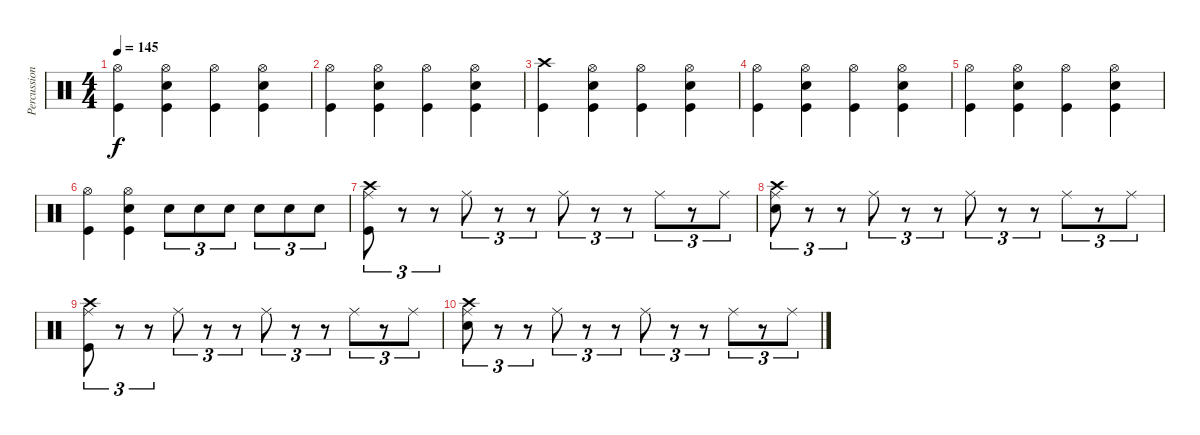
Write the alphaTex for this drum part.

\track ("Percussion" "Percussion") {instrument percussion}
\staff {score}
\articulation defaults
\ts (4 4)
\tempo 145
\clef neutral
\ks c
("Hi-Hat (open)" "Kick (hit)").4{dy f} ("Hi-Hat (open)" "Snare (hit) 2" "Kick (hit)").4 ("Hi-Hat (open)" "Kick (hit)").4 ("Hi-Hat (open)" "Snare (hit) 2" "Kick (hit)").4 |
("Hi-Hat (open)" "Kick (hit)").4 ("Hi-Hat (open)" "Snare (hit) 2" "Kick (hit)").4 ("Hi-Hat (open)" "Kick (hit)").4 ("Hi-Hat (open)" "Snare (hit) 2" "Kick (hit)").4 |
("Crash high (hit)" "Kick (hit)").4 ("Hi-Hat (open)" "Snare (hit) 2" "Kick (hit)").4 ("Hi-Hat (open)" "Kick (hit)").4 ("Hi-Hat (open)" "Snare (hit) 2" "Kick (hit)").4 |
("Hi-Hat (open)" "Kick (hit)").4 ("Hi-Hat (open)" "Snare (hit) 2" "Kick (hit)").4 ("Hi-Hat (open)" "Kick (hit)").4 ("Hi-Hat (open)" "Snare (hit) 2" "Kick (hit)").4 |
("Hi-Hat (open)" "Kick (hit)").4 ("Hi-Hat (open)" "Snare (hit) 2" "Kick (hit)").4 ("Hi-Hat (open)" "Kick (hit)").4 ("Hi-Hat (open)" "Snare (hit) 2" "Kick (hit)").4 |
("Hi-Hat (open)" "Kick (hit)").4 ("Hi-Hat (open)" "Snare (hit) 2" "Kick (hit)").4 "Electric Snare (hit)".8{tu (3 2)} "Electric Snare (hit)".8{tu (3 2)} "Electric Snare (hit)".8{tu (3 2)} "Electric Snare (hit)".8{tu (3 2)} "Electric Snare (hit)".8{tu (3 2)} "Electric Snare (hit)".8{tu (3 2)} |
("Ride (middle)" "Crash high (hit)" "Kick (hit)").8{tu (3 2)} r.8{tu (3 2)} r.8{tu (3 2)} "Ride (middle)".8{tu (3 2)} r.8{tu (3 2)} r.8{tu (3 2)} "Ride (middle)".8{tu (3 2)} r.8{tu (3 2)} r.8{tu (3 2)} "Ride (middle)".8{tu (3 2)} r.8{tu (3 2)} "Ride (middle)".8{tu (3 2)} |
("Ride (middle)" "Crash high (hit)" "Electric Snare (hit)").8{tu (3 2)} r.8{tu (3 2)} r.8{tu (3 2)} "Ride (middle)".8{tu (3 2)} r.8{tu (3 2)} r.8{tu (3 2)} "Ride (middle)".8{tu (3 2)} r.8{tu (3 2)} r.8{tu (3 2)} "Ride (middle)".8{tu (3 2)} r.8{tu (3 2)} "Ride (middle)".8{tu (3 2)} |
("Ride (middle)" "Crash high (hit)" "Kick (hit)").8{tu (3 2)} r.8{tu (3 2)} r.8{tu (3 2)} "Ride (middle)".8{tu (3 2)} r.8{tu (3 2)} r.8{tu (3 2)} "Ride (middle)".8{tu (3 2)} r.8{tu (3 2)} r.8{tu (3 2)} "Ride (middle)".8{tu (3 2)} r.8{tu (3 2)} "Ride (middle)".8{tu (3 2)} |
("Ride (middle)" "Crash high (hit)" "Electric Snare (hit)").8{tu (3 2)} r.8{tu (3 2)} r.8{tu (3 2)} "Ride (middle)".8{tu (3 2)} r.8{tu (3 2)} r.8{tu (3 2)} "Ride (middle)".8{tu (3 2)} r.8{tu (3 2)} r.8{tu (3 2)} "Ride (middle)".8{tu (3 2)} r.8{tu (3 2)} "Ride (middle)".8{tu (3 2)}
